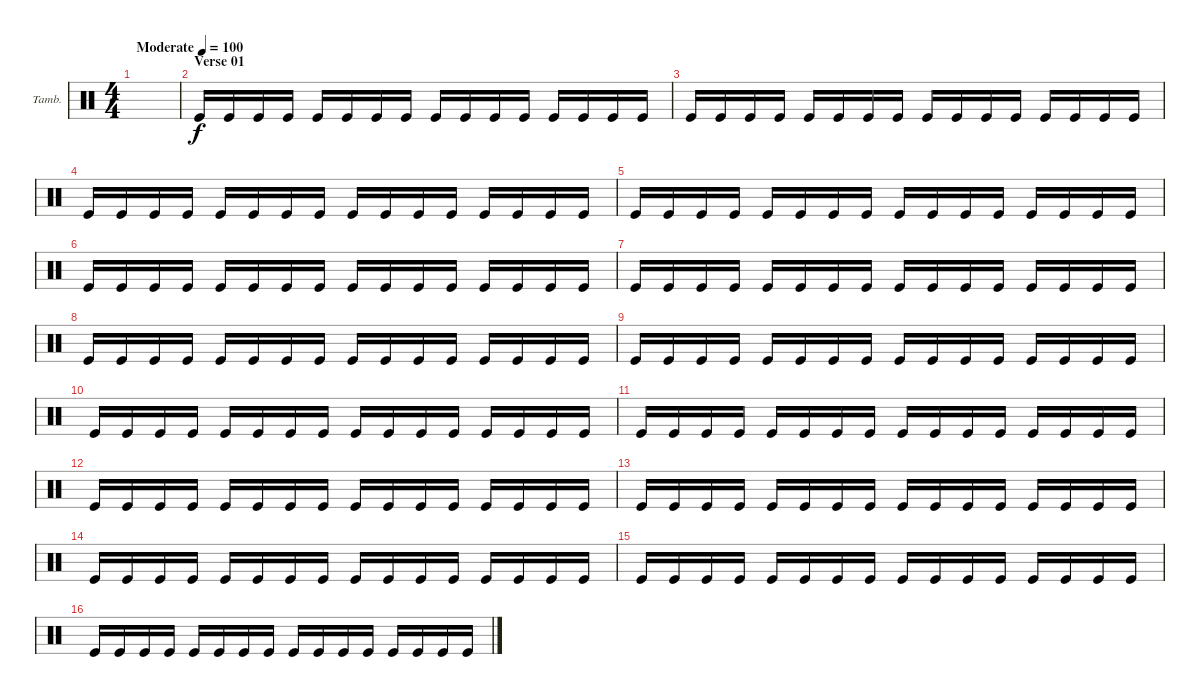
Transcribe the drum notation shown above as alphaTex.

\bracketExtendMode groupsimilarinstruments
\firstSystemTrackNameOrientation horizontal
\otherSystemsTrackNameOrientation horizontal
\track ("Tambourine" "Tamb.") {instrument percussion}
\staff {score}
\articulation defaults
\ts (4 4)
\tempo (100 "Moderate")
\clef neutral
\ks c
|
\section ("" "Verse 01")
"Kick (hit)".16 "Kick (hit)".16 "Kick (hit)".16 "Kick (hit)".16 "Kick (hit)".16 "Kick (hit)".16 "Kick (hit)".16 "Kick (hit)".16 "Kick (hit)".16 "Kick (hit)".16 "Kick (hit)".16 "Kick (hit)".16 "Kick (hit)".16 "Kick (hit)".16 "Kick (hit)".16 "Kick (hit)".16 |
"Kick (hit)".16 "Kick (hit)".16 "Kick (hit)".16 "Kick (hit)".16 "Kick (hit)".16 "Kick (hit)".16 "Kick (hit)".16 "Kick (hit)".16 "Kick (hit)".16 "Kick (hit)".16 "Kick (hit)".16 "Kick (hit)".16 "Kick (hit)".16 "Kick (hit)".16 "Kick (hit)".16 "Kick (hit)".16 |
"Kick (hit)".16 "Kick (hit)".16 "Kick (hit)".16 "Kick (hit)".16 "Kick (hit)".16 "Kick (hit)".16 "Kick (hit)".16 "Kick (hit)".16 "Kick (hit)".16 "Kick (hit)".16 "Kick (hit)".16 "Kick (hit)".16 "Kick (hit)".16 "Kick (hit)".16 "Kick (hit)".16 "Kick (hit)".16 |
"Kick (hit)".16 "Kick (hit)".16 "Kick (hit)".16 "Kick (hit)".16 "Kick (hit)".16 "Kick (hit)".16 "Kick (hit)".16 "Kick (hit)".16 "Kick (hit)".16 "Kick (hit)".16 "Kick (hit)".16 "Kick (hit)".16 "Kick (hit)".16 "Kick (hit)".16 "Kick (hit)".16 "Kick (hit)".16 |
"Kick (hit)".16 "Kick (hit)".16 "Kick (hit)".16 "Kick (hit)".16 "Kick (hit)".16 "Kick (hit)".16 "Kick (hit)".16 "Kick (hit)".16 "Kick (hit)".16 "Kick (hit)".16 "Kick (hit)".16 "Kick (hit)".16 "Kick (hit)".16 "Kick (hit)".16 "Kick (hit)".16 "Kick (hit)".16 |
"Kick (hit)".16 "Kick (hit)".16 "Kick (hit)".16 "Kick (hit)".16 "Kick (hit)".16 "Kick (hit)".16 "Kick (hit)".16 "Kick (hit)".16 "Kick (hit)".16 "Kick (hit)".16 "Kick (hit)".16 "Kick (hit)".16 "Kick (hit)".16 "Kick (hit)".16 "Kick (hit)".16 "Kick (hit)".16 |
"Kick (hit)".16 "Kick (hit)".16 "Kick (hit)".16 "Kick (hit)".16 "Kick (hit)".16 "Kick (hit)".16 "Kick (hit)".16 "Kick (hit)".16 "Kick (hit)".16 "Kick (hit)".16 "Kick (hit)".16 "Kick (hit)".16 "Kick (hit)".16 "Kick (hit)".16 "Kick (hit)".16 "Kick (hit)".16 |
"Kick (hit)".16 "Kick (hit)".16 "Kick (hit)".16 "Kick (hit)".16 "Kick (hit)".16 "Kick (hit)".16 "Kick (hit)".16 "Kick (hit)".16 "Kick (hit)".16 "Kick (hit)".16 "Kick (hit)".16 "Kick (hit)".16 "Kick (hit)".16 "Kick (hit)".16 "Kick (hit)".16 "Kick (hit)".16 |
"Kick (hit)".16 "Kick (hit)".16 "Kick (hit)".16 "Kick (hit)".16 "Kick (hit)".16 "Kick (hit)".16 "Kick (hit)".16 "Kick (hit)".16 "Kick (hit)".16 "Kick (hit)".16 "Kick (hit)".16 "Kick (hit)".16 "Kick (hit)".16 "Kick (hit)".16 "Kick (hit)".16 "Kick (hit)".16 |
"Kick (hit)".16 "Kick (hit)".16 "Kick (hit)".16 "Kick (hit)".16 "Kick (hit)".16 "Kick (hit)".16 "Kick (hit)".16 "Kick (hit)".16 "Kick (hit)".16 "Kick (hit)".16 "Kick (hit)".16 "Kick (hit)".16 "Kick (hit)".16 "Kick (hit)".16 "Kick (hit)".16 "Kick (hit)".16 |
"Kick (hit)".16 "Kick (hit)".16 "Kick (hit)".16 "Kick (hit)".16 "Kick (hit)".16 "Kick (hit)".16 "Kick (hit)".16 "Kick (hit)".16 "Kick (hit)".16 "Kick (hit)".16 "Kick (hit)".16 "Kick (hit)".16 "Kick (hit)".16 "Kick (hit)".16 "Kick (hit)".16 "Kick (hit)".16 |
"Kick (hit)".16 "Kick (hit)".16 "Kick (hit)".16 "Kick (hit)".16 "Kick (hit)".16 "Kick (hit)".16 "Kick (hit)".16 "Kick (hit)".16 "Kick (hit)".16 "Kick (hit)".16 "Kick (hit)".16 "Kick (hit)".16 "Kick (hit)".16 "Kick (hit)".16 "Kick (hit)".16 "Kick (hit)".16 |
"Kick (hit)".16 "Kick (hit)".16 "Kick (hit)".16 "Kick (hit)".16 "Kick (hit)".16 "Kick (hit)".16 "Kick (hit)".16 "Kick (hit)".16 "Kick (hit)".16 "Kick (hit)".16 "Kick (hit)".16 "Kick (hit)".16 "Kick (hit)".16 "Kick (hit)".16 "Kick (hit)".16 "Kick (hit)".16 |
"Kick (hit)".16 "Kick (hit)".16 "Kick (hit)".16 "Kick (hit)".16 "Kick (hit)".16 "Kick (hit)".16 "Kick (hit)".16 "Kick (hit)".16 "Kick (hit)".16 "Kick (hit)".16 "Kick (hit)".16 "Kick (hit)".16 "Kick (hit)".16 "Kick (hit)".16 "Kick (hit)".16 "Kick (hit)".16 |
"Kick (hit)".16 "Kick (hit)".16 "Kick (hit)".16 "Kick (hit)".16 "Kick (hit)".16 "Kick (hit)".16 "Kick (hit)".16 "Kick (hit)".16 "Kick (hit)".16 "Kick (hit)".16 "Kick (hit)".16 "Kick (hit)".16 "Kick (hit)".16 "Kick (hit)".16 "Kick (hit)".16 "Kick (hit)".16
